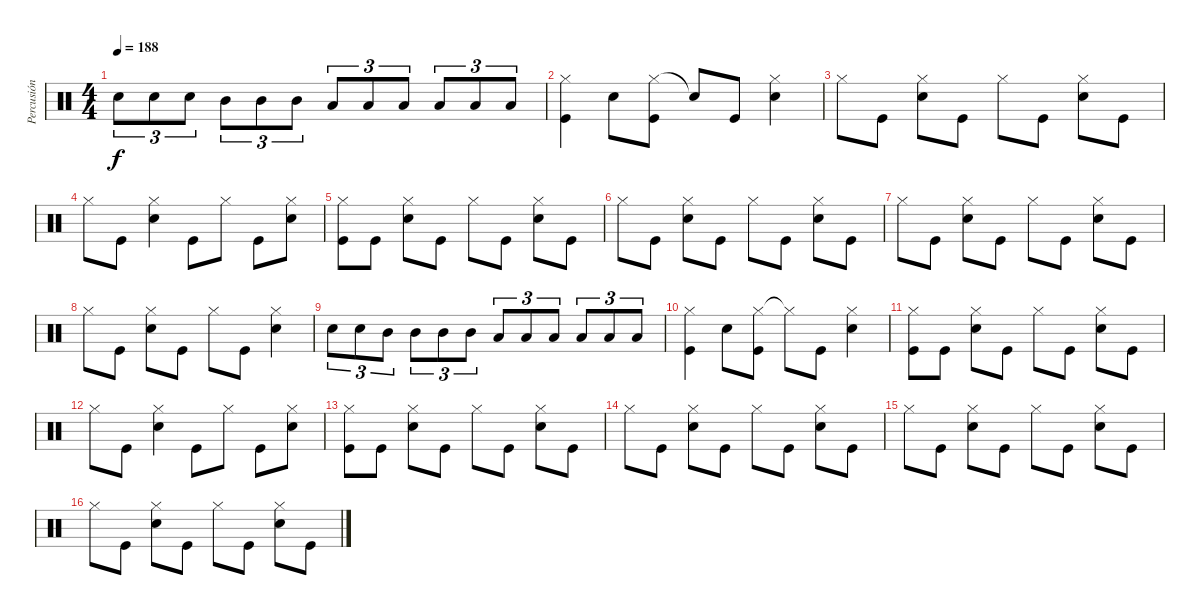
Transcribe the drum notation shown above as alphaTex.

\track ("Percusión" "Percusión") {instrument percussion}
\staff {score}
\articulation defaults
\ts (4 4)
\tempo 188
\clef neutral
\ks c "Snare (hit) 2".8{tu (3 2) dy f} "Snare (hit) 2".8{tu (3 2)} "Snare (hit) 2".8{tu (3 2)} "Mid Tom (hit)".8{tu (3 2)} "Mid Tom (hit)".8{tu (3 2)} "Mid Tom (hit)".8{tu (3 2)} "Low Tom (hit)".8{tu (3 2)} "Low Tom (hit)".8{tu (3 2)} "Low Tom (hit)".8{tu (3 2)} "Low Tom (hit)".8{tu (3 2)} "Low Tom (hit)".8{tu (3 2)} "Low Tom (hit)".8{tu (3 2)}
|
("Hi-Hat (closed)" "Kick (hit)").4 "Snare (hit) 2".8 ("Hi-Hat (closed)" "Kick (hit)").8 "Snare (hit)"{t}.8 "Kick (hit)".8 ("Hi-Hat (closed)" "Snare (hit) 2").4 |
"Hi-Hat (closed)".8 "Kick (hit)".8 ("Hi-Hat (closed)" "Snare (hit) 2").8 "Kick (hit)".8 "Hi-Hat (closed)".8 "Kick (hit)".8 ("Hi-Hat (closed)" "Snare (hit) 2").8 "Kick (hit)".8 |
"Hi-Hat (closed)".8 "Kick (hit)".8 ("Hi-Hat (closed)" "Snare (hit) 2").4 "Kick (hit)".8 "Hi-Hat (closed)".8 "Kick (hit)".8 ("Hi-Hat (closed)" "Snare (hit) 2").8 |
("Hi-Hat (closed)" "Kick (hit)").8 "Kick (hit)".8 ("Hi-Hat (closed)" "Snare (hit) 2").8 "Kick (hit)".8 "Hi-Hat (closed)".8 "Kick (hit)".8 ("Hi-Hat (closed)" "Snare (hit) 2").8 "Kick (hit)".8 |
"Hi-Hat (closed)".8 "Kick (hit)".8 ("Hi-Hat (closed)" "Snare (hit) 2").8 "Kick (hit)".8 "Hi-Hat (closed)".8 "Kick (hit)".8 ("Hi-Hat (closed)" "Snare (hit) 2").8 "Kick (hit)".8 |
"Hi-Hat (closed)".8 "Kick (hit)".8 ("Hi-Hat (closed)" "Snare (hit) 2").8 "Kick (hit)".8 "Hi-Hat (closed)".8 "Kick (hit)".8 ("Hi-Hat (closed)" "Snare (hit) 2").8 "Kick (hit)".8 |
"Hi-Hat (closed)".8 "Kick (hit)".8 ("Hi-Hat (closed)" "Snare (hit) 2").8 "Kick (hit)".8 "Hi-Hat (closed)".8 "Kick (hit)".8 ("Hi-Hat (closed)" "Snare (hit) 2").4 |
"Snare (hit) 2".8{tu (3 2)} "Snare (hit) 2".8{tu (3 2)} "Mid Tom (hit)".8{tu (3 2)} "Mid Tom (hit)".8{tu (3 2)} "Mid Tom (hit)".8{tu (3 2)} "Mid Tom (hit)".8{tu (3 2)} "Low Tom (hit)".8{tu (3 2)} "Low Tom (hit)".8{tu (3 2)} "Low Tom (hit)".8{tu (3 2)} "Low Tom (hit)".8{tu (3 2)} "Low Tom (hit)".8{tu (3 2)} "Low Tom (hit)".8{tu (3 2)} |
("Hi-Hat (closed)" "Kick (hit)").4 "Snare (hit) 2".8 ("Hi-Hat (closed)" "Kick (hit)").8 "Hi-Hat (closed)"{t}.8 "Kick (hit)".8 ("Hi-Hat (closed)" "Snare (hit) 2").4 |
("Hi-Hat (closed)" "Kick (hit)").8 "Kick (hit)".8 ("Hi-Hat (closed)" "Snare (hit) 2").8 "Kick (hit)".8 "Hi-Hat (closed)".8 "Kick (hit)".8 ("Hi-Hat (closed)" "Snare (hit) 2").8 "Kick (hit)".8 |
"Hi-Hat (closed)".8 "Kick (hit)".8 ("Hi-Hat (closed)" "Snare (hit) 2").4 "Kick (hit)".8 "Hi-Hat (closed)".8 "Kick (hit)".8 ("Hi-Hat (closed)" "Snare (hit) 2").8 |
("Hi-Hat (closed)" "Kick (hit)").8 "Kick (hit)".8 ("Hi-Hat (closed)" "Snare (hit) 2").8 "Kick (hit)".8 "Hi-Hat (closed)".8 "Kick (hit)".8 ("Hi-Hat (closed)" "Snare (hit) 2").8 "Kick (hit)".8 |
"Hi-Hat (closed)".8 "Kick (hit)".8 ("Hi-Hat (closed)" "Snare (hit) 2").8 "Kick (hit)".8 "Hi-Hat (closed)".8 "Kick (hit)".8 ("Hi-Hat (closed)" "Snare (hit) 2").8 "Kick (hit)".8 |
"Hi-Hat (closed)".8 "Kick (hit)".8 ("Hi-Hat (closed)" "Snare (hit) 2").8 "Kick (hit)".8 "Hi-Hat (closed)".8 "Kick (hit)".8 ("Hi-Hat (closed)" "Snare (hit) 2").8 "Kick (hit)".8 |
"Hi-Hat (closed)".8 "Kick (hit)".8 ("Hi-Hat (closed)" "Snare (hit) 2").8 "Kick (hit)".8 "Hi-Hat (closed)".8 "Kick (hit)".8 ("Hi-Hat (closed)" "Snare (hit) 2").8 "Kick (hit)".8
